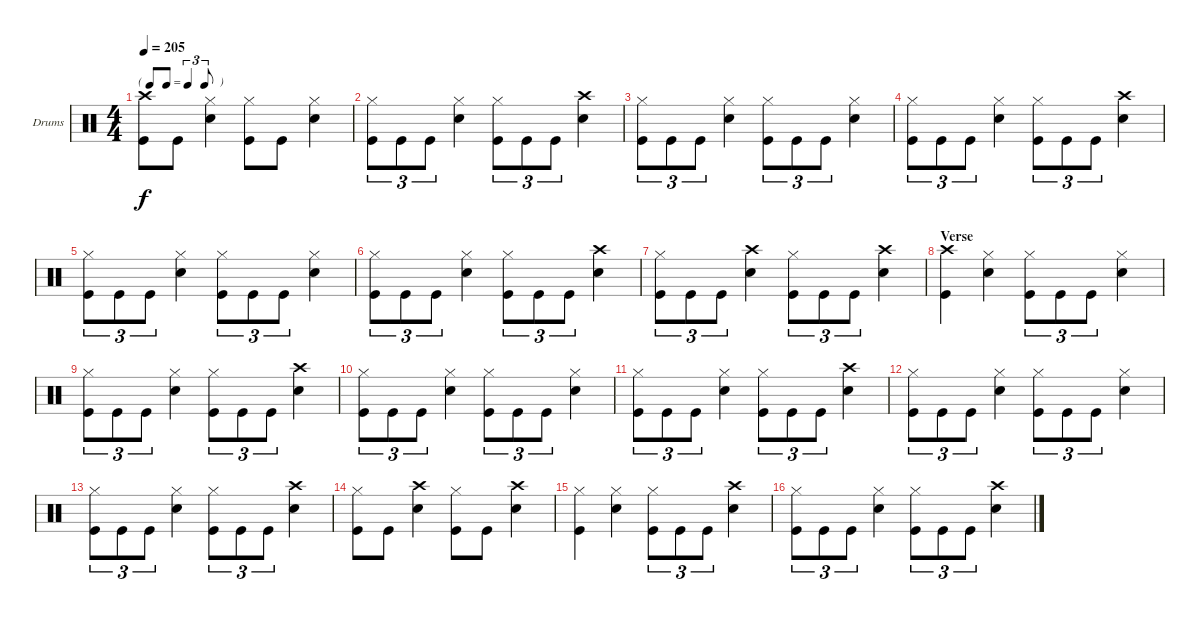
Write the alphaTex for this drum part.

\bracketExtendMode groupsimilarinstruments
\firstSystemTrackNameOrientation horizontal
\otherSystemsTrackNameOrientation horizontal
\track ("Drums" "Drums") {instrument percussion}
\staff {score}
\articulation defaults
\ts (4 4)
\tf triplet8th
\tempo 205
\clef neutral
\ks c
("Crash high (hit)" "Kick (hit)").8{dy f} "Kick (hit)".8 ("Hi-Hat (closed)" "Snare (hit) 2").4 ("Hi-Hat (closed)" "Kick (hit)").8 "Kick (hit)".8 ("Snare (hit) 2" "Hi-Hat (closed)").4 |
("Hi-Hat (closed)" "Kick (hit)").8{tu (3 2)} "Kick (hit)".8{tu (3 2)} "Kick (hit)".8{tu (3 2)} ("Snare (hit) 2" "Hi-Hat (closed)").4 ("Hi-Hat (closed)" "Kick (hit)").8{tu (3 2)} "Kick (hit)".8{tu (3 2)} "Kick (hit)".8{tu (3 2)} ("Crash high (hit)" "Snare (hit) 2").4 |
("Hi-Hat (closed)" "Kick (hit)").8{tu (3 2)} "Kick (hit)".8{tu (3 2)} "Kick (hit)".8{tu (3 2)} ("Snare (hit) 2" "Hi-Hat (closed)").4 ("Hi-Hat (closed)" "Kick (hit)").8{tu (3 2)} "Kick (hit)".8{tu (3 2)} "Kick (hit)".8{tu (3 2)} ("Hi-Hat (closed)" "Snare (hit) 2").4 |
("Hi-Hat (closed)" "Kick (hit)").8{tu (3 2)} "Kick (hit)".8{tu (3 2)} "Kick (hit)".8{tu (3 2)} ("Snare (hit) 2" "Hi-Hat (closed)").4 ("Hi-Hat (closed)" "Kick (hit)").8{tu (3 2)} "Kick (hit)".8{tu (3 2)} "Kick (hit)".8{tu (3 2)} ("Crash high (hit)" "Snare (hit) 2").4 |
("Hi-Hat (closed)" "Kick (hit)").8{tu (3 2)} "Kick (hit)".8{tu (3 2)} "Kick (hit)".8{tu (3 2)} ("Snare (hit) 2" "Hi-Hat (closed)").4 ("Hi-Hat (closed)" "Kick (hit)").8{tu (3 2)} "Kick (hit)".8{tu (3 2)} "Kick (hit)".8{tu (3 2)} ("Hi-Hat (closed)" "Snare (hit) 2").4 |
("Hi-Hat (closed)" "Kick (hit)").8{tu (3 2)} "Kick (hit)".8{tu (3 2)} "Kick (hit)".8{tu (3 2)} ("Snare (hit) 2" "Hi-Hat (closed)").4 ("Hi-Hat (closed)" "Kick (hit)").8{tu (3 2)} "Kick (hit)".8{tu (3 2)} "Kick (hit)".8{tu (3 2)} ("Crash high (hit)" "Snare (hit) 2").4 |
("Hi-Hat (closed)" "Kick (hit)").8{tu (3 2)} "Kick (hit)".8{tu (3 2)} "Kick (hit)".8{tu (3 2)} ("Crash high (hit)" "Snare (hit) 2").4 ("Hi-Hat (closed)" "Kick (hit)").8{tu (3 2)} "Kick (hit)".8{tu (3 2)} "Kick (hit)".8{tu (3 2)} ("Crash high (hit)" "Snare (hit) 2").4 |
\section ("" "Verse")
("Crash high (hit)" "Kick (hit)").4 ("Snare (hit) 2" "Hi-Hat (closed)").4 ("Hi-Hat (closed)" "Kick (hit)").8{tu (3 2)} "Kick (hit)".8{tu (3 2)} "Kick (hit)".8{tu (3 2)} ("Hi-Hat (closed)" "Snare (hit) 2").4 |
("Hi-Hat (closed)" "Kick (hit)").8{tu (3 2)} "Kick (hit)".8{tu (3 2)} "Kick (hit)".8{tu (3 2)} ("Snare (hit) 2" "Hi-Hat (closed)").4 ("Hi-Hat (closed)" "Kick (hit)").8{tu (3 2)} "Kick (hit)".8{tu (3 2)} "Kick (hit)".8{tu (3 2)} ("Crash high (hit)" "Snare (hit) 2").4 |
("Hi-Hat (closed)" "Kick (hit)").8{tu (3 2)} "Kick (hit)".8{tu (3 2)} "Kick (hit)".8{tu (3 2)} ("Snare (hit) 2" "Hi-Hat (closed)").4 ("Hi-Hat (closed)" "Kick (hit)").8{tu (3 2)} "Kick (hit)".8{tu (3 2)} "Kick (hit)".8{tu (3 2)} ("Hi-Hat (closed)" "Snare (hit) 2").4 |
("Hi-Hat (closed)" "Kick (hit)").8{tu (3 2)} "Kick (hit)".8{tu (3 2)} "Kick (hit)".8{tu (3 2)} ("Snare (hit) 2" "Hi-Hat (closed)").4 ("Hi-Hat (closed)" "Kick (hit)").8{tu (3 2)} "Kick (hit)".8{tu (3 2)} "Kick (hit)".8{tu (3 2)} ("Crash high (hit)" "Snare (hit) 2").4 |
("Hi-Hat (closed)" "Kick (hit)").8{tu (3 2)} "Kick (hit)".8{tu (3 2)} "Kick (hit)".8{tu (3 2)} ("Snare (hit) 2" "Hi-Hat (closed)").4 ("Hi-Hat (closed)" "Kick (hit)").8{tu (3 2)} "Kick (hit)".8{tu (3 2)} "Kick (hit)".8{tu (3 2)} ("Hi-Hat (closed)" "Snare (hit) 2").4 |
("Hi-Hat (closed)" "Kick (hit)").8{tu (3 2)} "Kick (hit)".8{tu (3 2)} "Kick (hit)".8{tu (3 2)} ("Snare (hit) 2" "Hi-Hat (closed)").4 ("Hi-Hat (closed)" "Kick (hit)").8{tu (3 2)} "Kick (hit)".8{tu (3 2)} "Kick (hit)".8{tu (3 2)} ("Crash high (hit)" "Snare (hit) 2").4 |
("Kick (hit)" "Hi-Hat (closed)").8 "Kick (hit)".8 ("Crash high (hit)" "Snare (hit) 2").4 ("Kick (hit)" "Hi-Hat (closed)").8 "Kick (hit)".8 ("Crash high (hit)" "Snare (hit) 2").4 |
("Hi-Hat (closed)" "Kick (hit)").4 ("Snare (hit) 2" "Hi-Hat (closed)").4 ("Hi-Hat (closed)" "Kick (hit)").8{tu (3 2)} "Kick (hit)".8{tu (3 2)} "Kick (hit)".8{tu (3 2)} ("Crash high (hit)" "Snare (hit) 2").4 |
("Hi-Hat (closed)" "Kick (hit)").8{tu (3 2)} "Kick (hit)".8{tu (3 2)} "Kick (hit)".8{tu (3 2)} ("Snare (hit) 2" "Hi-Hat (closed)").4 ("Hi-Hat (closed)" "Kick (hit)").8{tu (3 2)} "Kick (hit)".8{tu (3 2)} "Kick (hit)".8{tu (3 2)} ("Crash high (hit)" "Snare (hit) 2").4
